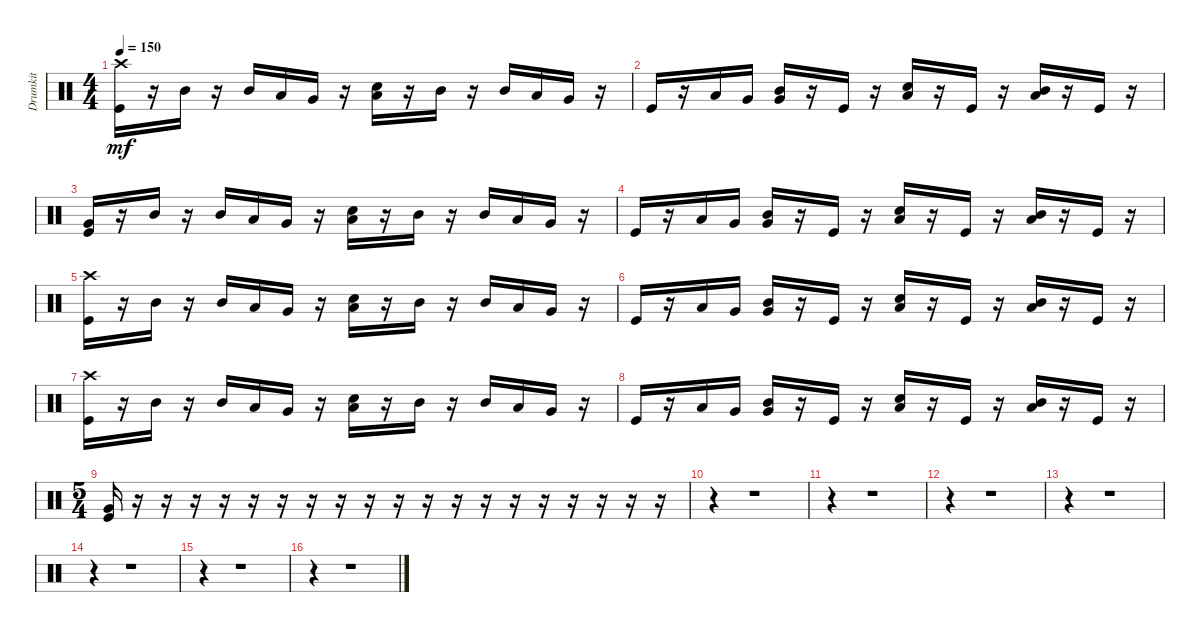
\track ("Drumkit" "Drumkit") {instrument percussion}
\staff {score}
\articulation defaults
\ts (4 4)
\tempo 150
\clef neutral
\ks c
("Kick (hit)" "Crash high (hit)").16{dy mf} r.16 "Mid Tom (hit)".16 r.16 "Mid Tom (hit)".16 "Low Tom (hit)".16 "Very Low Tom (hit)".16 r.16 ("Low Floor Tom (hit)" "Snare (hit) 2").16 r.16 "Mid Tom (hit)".16 r.16 "Mid Tom (hit)".16 "Low Tom (hit)".16 "Very Low Tom (hit)".16 r.16 |
"Kick (hit)".16 r.16 "Low Tom (hit)".16 "Very Low Tom (hit)".16 ("Very Low Tom (hit)" "Mid Tom (hit)").16 r.16 "Kick (hit)".16 r.16 ("Low Floor Tom (hit)" "Snare (hit) 2").16 r.16 "Kick (hit)".16 r.16 ("Low Floor Tom (hit)" "Mid Tom (hit)").16 r.16 "Kick (hit)".16 r.16 |
("Kick (hit)" "Very Low Tom (hit)").16 r.16 "Mid Tom (hit)".16 r.16 "Mid Tom (hit)".16 "Low Tom (hit)".16 "Very Low Tom (hit)".16 r.16 ("Low Floor Tom (hit)" "Snare (hit) 2").16 r.16 "Mid Tom (hit)".16 r.16 "Mid Tom (hit)".16 "Low Tom (hit)".16 "Very Low Tom (hit)".16 r.16 |
"Kick (hit)".16 r.16 "Low Tom (hit)".16 "Very Low Tom (hit)".16 ("Very Low Tom (hit)" "Mid Tom (hit)").16 r.16 "Kick (hit)".16 r.16 ("Low Floor Tom (hit)" "Snare (hit) 2").16 r.16 "Kick (hit)".16 r.16 ("Low Floor Tom (hit)" "Mid Tom (hit)").16 r.16 "Kick (hit)".16 r.16 |
("Kick (hit)" "Crash high (hit)").16 r.16 "Mid Tom (hit)".16 r.16 "Mid Tom (hit)".16 "Low Tom (hit)".16 "Very Low Tom (hit)".16 r.16 ("Low Floor Tom (hit)" "Snare (hit) 2").16 r.16 "Mid Tom (hit)".16 r.16 "Mid Tom (hit)".16 "Low Tom (hit)".16 "Very Low Tom (hit)".16 r.16 |
"Kick (hit)".16 r.16 "Low Tom (hit)".16 "Very Low Tom (hit)".16 ("Very Low Tom (hit)" "Mid Tom (hit)").16 r.16 "Kick (hit)".16 r.16 ("Low Floor Tom (hit)" "Snare (hit) 2").16 r.16 "Kick (hit)".16 r.16 ("Low Floor Tom (hit)" "Mid Tom (hit)").16 r.16 "Kick (hit)".16 r.16 |
("Kick (hit)" "Crash high (hit)").16 r.16 "Mid Tom (hit)".16 r.16 "Mid Tom (hit)".16 "Low Tom (hit)".16 "Very Low Tom (hit)".16 r.16 ("Low Floor Tom (hit)" "Snare (hit) 2").16 r.16 "Mid Tom (hit)".16 r.16 "Mid Tom (hit)".16 "Low Tom (hit)".16 "Very Low Tom (hit)".16 r.16 |
"Kick (hit)".16 r.16 "Low Tom (hit)".16 "Very Low Tom (hit)".16 ("Very Low Tom (hit)" "Mid Tom (hit)").16 r.16 "Kick (hit)".16 r.16 ("Low Floor Tom (hit)" "Snare (hit) 2").16 r.16 "Kick (hit)".16 r.16 ("Low Floor Tom (hit)" "Mid Tom (hit)").16 r.16 "Kick (hit)".16 r.16 |
\ts (5 4)
("Kick (hit)" "Very Low Tom (hit)").16 r.16 r.16 r.16 r.16 r.16 r.16 r.16 r.16 r.16 r.16 r.16 r.16 r.16 r.16 r.16 r.16 r.16 r.16 r.16 |
r.4 r.1 |
r.4 r.1 |
r.4 r.1 |
r.4 r.1 |
r.4 r.1 |
r.4 r.1 |
r.4 r.1
